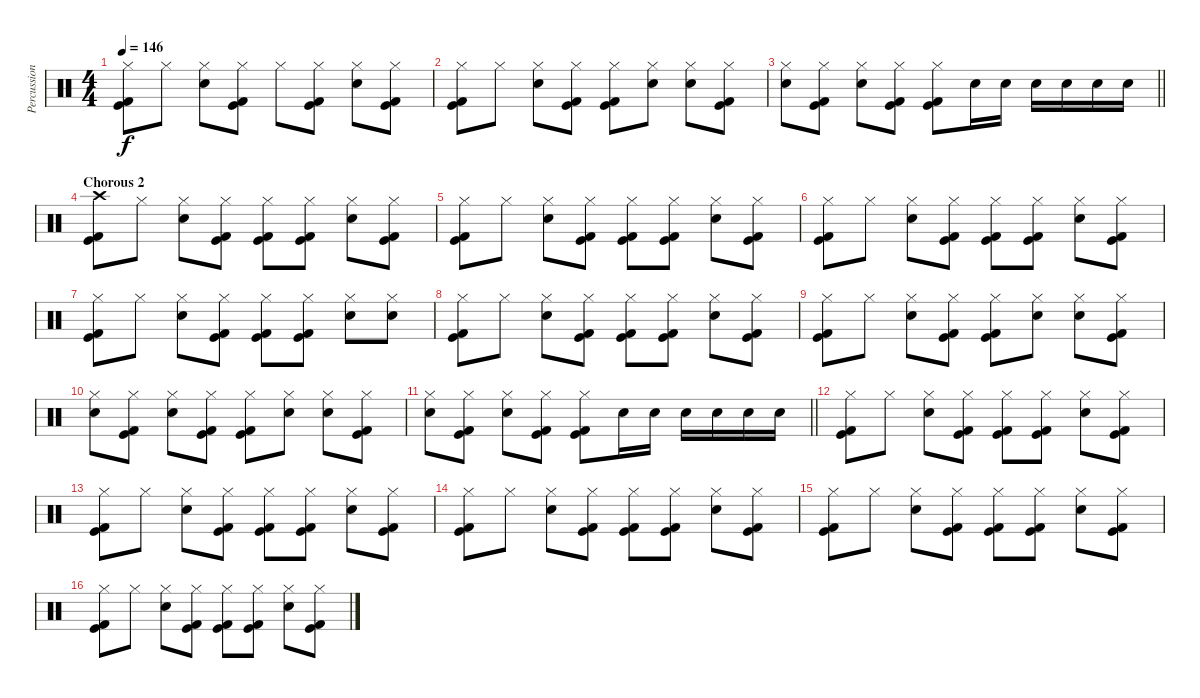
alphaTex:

\track ("Percussion" "Percussion") {instrument percussion}
\staff {score}
\articulation defaults
\ts (4 4)
\tempo 146
\clef neutral
\ks c
("Hi-Hat (closed)" "Kick (hit)" "Kick (hit) 2").8{dy f} "Hi-Hat (closed)".8 ("Hi-Hat (closed)" "Electric Snare (hit)").8 ("Hi-Hat (closed)" "Kick (hit)" "Kick (hit) 2").8 "Hi-Hat (closed)".8 ("Hi-Hat (closed)" "Kick (hit)" "Kick (hit) 2").8 ("Hi-Hat (closed)" "Electric Snare (hit)").8 ("Hi-Hat (closed)" "Kick (hit)" "Kick (hit) 2").8 |
("Hi-Hat (closed)" "Kick (hit)" "Kick (hit) 2").8 "Hi-Hat (closed)".8 ("Hi-Hat (closed)" "Electric Snare (hit)").8 ("Hi-Hat (closed)" "Kick (hit)" "Kick (hit) 2").8 ("Hi-Hat (closed)" "Kick (hit)" "Kick (hit) 2").8 ("Hi-Hat (closed)" "Electric Snare (hit)").8 ("Hi-Hat (closed)" "Electric Snare (hit)").8 ("Hi-Hat (closed)" "Kick (hit)" "Kick (hit) 2").8 |
\barLineRight lightlight
("Hi-Hat (closed)" "Electric Snare (hit)").8 ("Hi-Hat (closed)" "Kick (hit)" "Kick (hit) 2").8 ("Hi-Hat (closed)" "Electric Snare (hit)").8 ("Hi-Hat (closed)" "Kick (hit)" "Kick (hit) 2").8 ("Hi-Hat (closed)" "Kick (hit)" "Kick (hit) 2").8 "Electric Snare (hit)".16 "Electric Snare (hit)".16 "Electric Snare (hit)".16 "Electric Snare (hit)".16 "Electric Snare (hit)".16 "Electric Snare (hit)".16 |
\section ("" "Chorous 2")
("Crash high (hit)" "Kick (hit)" "Kick (hit) 2").8 "Hi-Hat (closed)".8 ("Hi-Hat (closed)" "Electric Snare (hit)").8 ("Hi-Hat (closed)" "Kick (hit)" "Kick (hit) 2").8 ("Hi-Hat (closed)" "Kick (hit)" "Kick (hit) 2").8 ("Hi-Hat (closed)" "Kick (hit)" "Kick (hit) 2").8 ("Hi-Hat (closed)" "Electric Snare (hit)").8 ("Hi-Hat (closed)" "Kick (hit)" "Kick (hit) 2").8 |
("Hi-Hat (closed)" "Kick (hit)" "Kick (hit) 2").8 "Hi-Hat (closed)".8 ("Hi-Hat (closed)" "Electric Snare (hit)").8 ("Hi-Hat (closed)" "Kick (hit)" "Kick (hit) 2").8 ("Hi-Hat (closed)" "Kick (hit)" "Kick (hit) 2").8 ("Hi-Hat (closed)" "Kick (hit)" "Kick (hit) 2").8 ("Hi-Hat (closed)" "Electric Snare (hit)").8 ("Hi-Hat (closed)" "Kick (hit)" "Kick (hit) 2").8 |
("Hi-Hat (closed)" "Kick (hit)" "Kick (hit) 2").8 "Hi-Hat (closed)".8 ("Hi-Hat (closed)" "Electric Snare (hit)").8 ("Hi-Hat (closed)" "Kick (hit)" "Kick (hit) 2").8 ("Hi-Hat (closed)" "Kick (hit)" "Kick (hit) 2").8 ("Hi-Hat (closed)" "Kick (hit)" "Kick (hit) 2").8 ("Hi-Hat (closed)" "Electric Snare (hit)").8 ("Hi-Hat (closed)" "Kick (hit)" "Kick (hit) 2").8 |
("Hi-Hat (closed)" "Kick (hit)" "Kick (hit) 2").8 "Hi-Hat (closed)".8 ("Hi-Hat (closed)" "Electric Snare (hit)").8 ("Hi-Hat (closed)" "Kick (hit)" "Kick (hit) 2").8 ("Hi-Hat (closed)" "Kick (hit)" "Kick (hit) 2").8 ("Hi-Hat (closed)" "Kick (hit)" "Kick (hit) 2").8 ("Hi-Hat (closed)" "Electric Snare (hit)").8 ("Hi-Hat (closed)" "Electric Snare (hit)").8 |
("Hi-Hat (closed)" "Kick (hit)" "Kick (hit) 2").8 "Hi-Hat (closed)".8 ("Hi-Hat (closed)" "Electric Snare (hit)").8 ("Hi-Hat (closed)" "Kick (hit)" "Kick (hit) 2").8 ("Hi-Hat (closed)" "Kick (hit)" "Kick (hit) 2").8 ("Hi-Hat (closed)" "Kick (hit)" "Kick (hit) 2").8 ("Hi-Hat (closed)" "Electric Snare (hit)").8 ("Hi-Hat (closed)" "Kick (hit)" "Kick (hit) 2").8 |
("Hi-Hat (closed)" "Kick (hit)" "Kick (hit) 2").8 "Hi-Hat (closed)".8 ("Hi-Hat (closed)" "Electric Snare (hit)").8 ("Hi-Hat (closed)" "Kick (hit)" "Kick (hit) 2").8 ("Hi-Hat (closed)" "Kick (hit)" "Kick (hit) 2").8 ("Hi-Hat (closed)" "Electric Snare (hit)").8 ("Hi-Hat (closed)" "Electric Snare (hit)").8 ("Hi-Hat (closed)" "Kick (hit)" "Kick (hit) 2").8 |
("Hi-Hat (closed)" "Electric Snare (hit)").8 ("Hi-Hat (closed)" "Kick (hit)" "Kick (hit) 2").8 ("Hi-Hat (closed)" "Electric Snare (hit)").8 ("Hi-Hat (closed)" "Kick (hit)" "Kick (hit) 2").8 ("Hi-Hat (closed)" "Kick (hit)" "Kick (hit) 2").8 ("Hi-Hat (closed)" "Electric Snare (hit)").8 ("Hi-Hat (closed)" "Electric Snare (hit)").8 ("Hi-Hat (closed)" "Kick (hit)" "Kick (hit) 2").8 |
\barLineRight lightlight
("Hi-Hat (closed)" "Electric Snare (hit)").8 ("Hi-Hat (closed)" "Kick (hit)" "Kick (hit) 2").8 ("Hi-Hat (closed)" "Electric Snare (hit)").8 ("Hi-Hat (closed)" "Kick (hit)" "Kick (hit) 2").8 ("Hi-Hat (closed)" "Kick (hit)" "Kick (hit) 2").8 "Electric Snare (hit)".16 "Electric Snare (hit)".16 "Electric Snare (hit)".16 "Electric Snare (hit)".16 "Electric Snare (hit)".16 "Electric Snare (hit)".16 |
("Hi-Hat (closed)" "Kick (hit)" "Kick (hit) 2").8 "Hi-Hat (closed)".8 ("Hi-Hat (closed)" "Electric Snare (hit)").8 ("Hi-Hat (closed)" "Kick (hit)" "Kick (hit) 2").8 ("Hi-Hat (closed)" "Kick (hit)" "Kick (hit) 2").8 ("Hi-Hat (closed)" "Kick (hit)" "Kick (hit) 2").8 ("Hi-Hat (closed)" "Electric Snare (hit)").8 ("Hi-Hat (closed)" "Kick (hit)" "Kick (hit) 2").8 |
("Hi-Hat (closed)" "Kick (hit)" "Kick (hit) 2").8 "Hi-Hat (closed)".8 ("Hi-Hat (closed)" "Electric Snare (hit)").8 ("Hi-Hat (closed)" "Kick (hit)" "Kick (hit) 2").8 ("Hi-Hat (closed)" "Kick (hit)" "Kick (hit) 2").8 ("Hi-Hat (closed)" "Kick (hit)" "Kick (hit) 2").8 ("Hi-Hat (closed)" "Electric Snare (hit)").8 ("Hi-Hat (closed)" "Kick (hit)" "Kick (hit) 2").8 |
("Hi-Hat (closed)" "Kick (hit)" "Kick (hit) 2").8 "Hi-Hat (closed)".8 ("Hi-Hat (closed)" "Electric Snare (hit)").8 ("Hi-Hat (closed)" "Kick (hit)" "Kick (hit) 2").8 ("Hi-Hat (closed)" "Kick (hit)" "Kick (hit) 2").8 ("Hi-Hat (closed)" "Kick (hit)" "Kick (hit) 2").8 ("Hi-Hat (closed)" "Electric Snare (hit)").8 ("Hi-Hat (closed)" "Kick (hit)" "Kick (hit) 2").8 |
("Hi-Hat (closed)" "Kick (hit)" "Kick (hit) 2").8 "Hi-Hat (closed)".8 ("Hi-Hat (closed)" "Electric Snare (hit)").8 ("Hi-Hat (closed)" "Kick (hit)" "Kick (hit) 2").8 ("Hi-Hat (closed)" "Kick (hit)" "Kick (hit) 2").8 ("Hi-Hat (closed)" "Kick (hit)" "Kick (hit) 2").8 ("Hi-Hat (closed)" "Electric Snare (hit)").8 ("Hi-Hat (closed)" "Kick (hit)" "Kick (hit) 2").8 |
("Hi-Hat (closed)" "Kick (hit)" "Kick (hit) 2").8 "Hi-Hat (closed)".8 ("Hi-Hat (closed)" "Electric Snare (hit)").8 ("Hi-Hat (closed)" "Kick (hit)" "Kick (hit) 2").8 ("Hi-Hat (closed)" "Kick (hit)" "Kick (hit) 2").8 ("Hi-Hat (closed)" "Kick (hit)" "Kick (hit) 2").8 ("Hi-Hat (closed)" "Electric Snare (hit)").8 ("Hi-Hat (closed)" "Kick (hit)" "Kick (hit) 2").8
